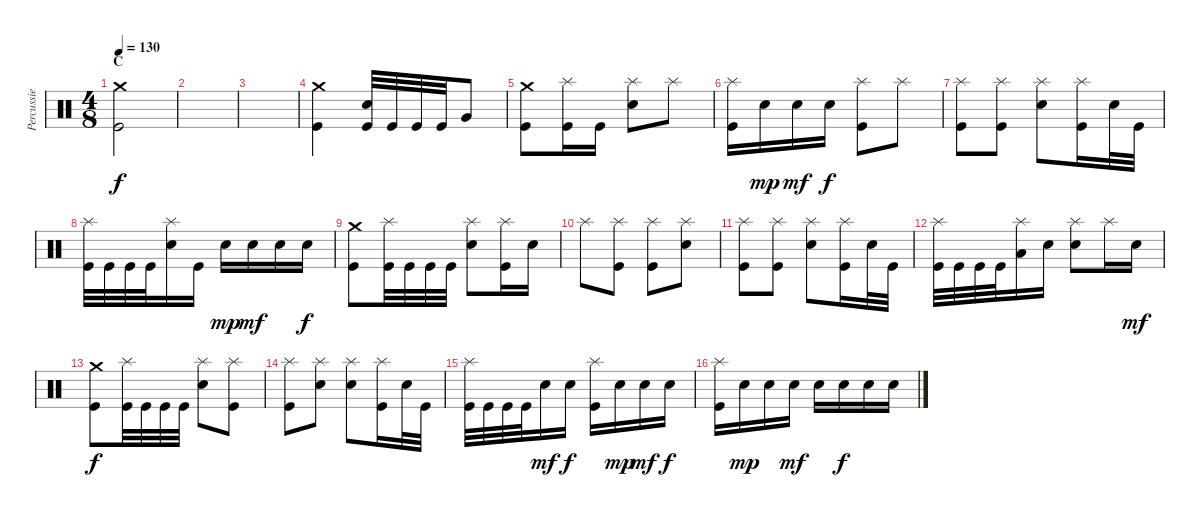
\track ("Percussie" "Percussie") {instrument percussion}
\staff {score}
\articulation defaults
\ts (4 8)
\section ("" "C")
\tempo 130
\clef neutral
\ks c
("Crash medium (hit)" "Kick (hit)").2{dy f} |
|
|
("Crash medium (hit)" "Kick (hit)").4 ("Electric Snare (hit)" "Kick (hit)").32 "Kick (hit)".32 "Kick (hit)".32 "Kick (hit)".32 "Very Low Tom (hit)".8 |
("Crash medium (hit)" "Kick (hit)").8 ("Splash (hit)" "Kick (hit)").16 "Kick (hit)".16 ("Splash (hit)" "Electric Snare (hit)").8 "Splash (hit)".8 |
("Splash (hit)" "Kick (hit)").16 "Electric Snare (hit)".16{dy mp} "Electric Snare (hit)".16{dy mf} "Electric Snare (hit)".16{dy f} ("Splash (hit)" "Kick (hit)").8 "Splash (hit)".8 |
("Splash (hit)" "Kick (hit)").8 ("Splash (hit)" "Kick (hit)").8 ("Splash (hit)" "Electric Snare (hit)").8 ("Splash (hit)" "Kick (hit)").16 "Electric Snare (hit)".32 "Kick (hit)".32 |
("Splash (hit)" "Kick (hit)").32 "Kick (hit)".32 "Kick (hit)".32 "Kick (hit)".32 ("Splash (hit)" "Electric Snare (hit)").16 "Kick (hit)".16 "Electric Snare (hit)".16{dy mp} "Electric Snare (hit)".16{dy mf} "Electric Snare (hit)".16 "Electric Snare (hit)".16{dy f} |
("Crash medium (hit)" "Kick (hit)").8 ("Splash (hit)" "Kick (hit)").32 "Kick (hit)".32 "Kick (hit)".32 "Kick (hit)".32 ("Splash (hit)" "Electric Snare (hit)").8 ("Splash (hit)" "Kick (hit)").16 "Electric Snare (hit)".16 |
"Splash (hit)".8 ("Splash (hit)" "Kick (hit)").8 ("Splash (hit)" "Kick (hit)").8 ("Splash (hit)" "Electric Snare (hit)").8 |
("Splash (hit)" "Kick (hit)").8 ("Splash (hit)" "Kick (hit)").8 ("Splash (hit)" "Electric Snare (hit)").8 ("Splash (hit)" "Kick (hit)").16 "Electric Snare (hit)".32 "Kick (hit)".32 |
("Splash (hit)" "Kick (hit)").32 "Kick (hit)".32 "Kick (hit)".32 "Kick (hit)".32 ("Splash (hit)" "Low Floor Tom (hit)").16 "Electric Snare (hit)".16 ("Splash (hit)" "Electric Snare (hit)").8 "Splash (hit)".16 "Electric Snare (hit)".16{dy mf} |
("Crash medium (hit)" "Kick (hit)").8{dy f} ("Splash (hit)" "Kick (hit)").32 "Kick (hit)".32 "Kick (hit)".32 "Kick (hit)".32 ("Splash (hit)" "Electric Snare (hit)").8 ("Splash (hit)" "Kick (hit)").8 |
("Splash (hit)" "Kick (hit)").8 ("Splash (hit)" "Electric Snare (hit)").8 ("Splash (hit)" "Electric Snare (hit)").8 ("Splash (hit)" "Kick (hit)").16 "Electric Snare (hit)".32 "Kick (hit)".32 |
("Splash (hit)" "Kick (hit)").32 "Kick (hit)".32 "Kick (hit)".32 "Kick (hit)".32 "Electric Snare (hit)".16{dy mf} "Electric Snare (hit)".16{dy f} ("Splash (hit)" "Kick (hit)").16 "Electric Snare (hit)".16{dy mp} "Electric Snare (hit)".16{dy mf} "Electric Snare (hit)".16{dy f} |
("Splash (hit)" "Kick (hit)").16 "Electric Snare (hit)".16{dy mp} "Electric Snare (hit)".16 "Electric Snare (hit)".16{dy mf} "Electric Snare (hit)".16 "Electric Snare (hit)".16{dy f} "Electric Snare (hit)".16 "Electric Snare (hit)".16
